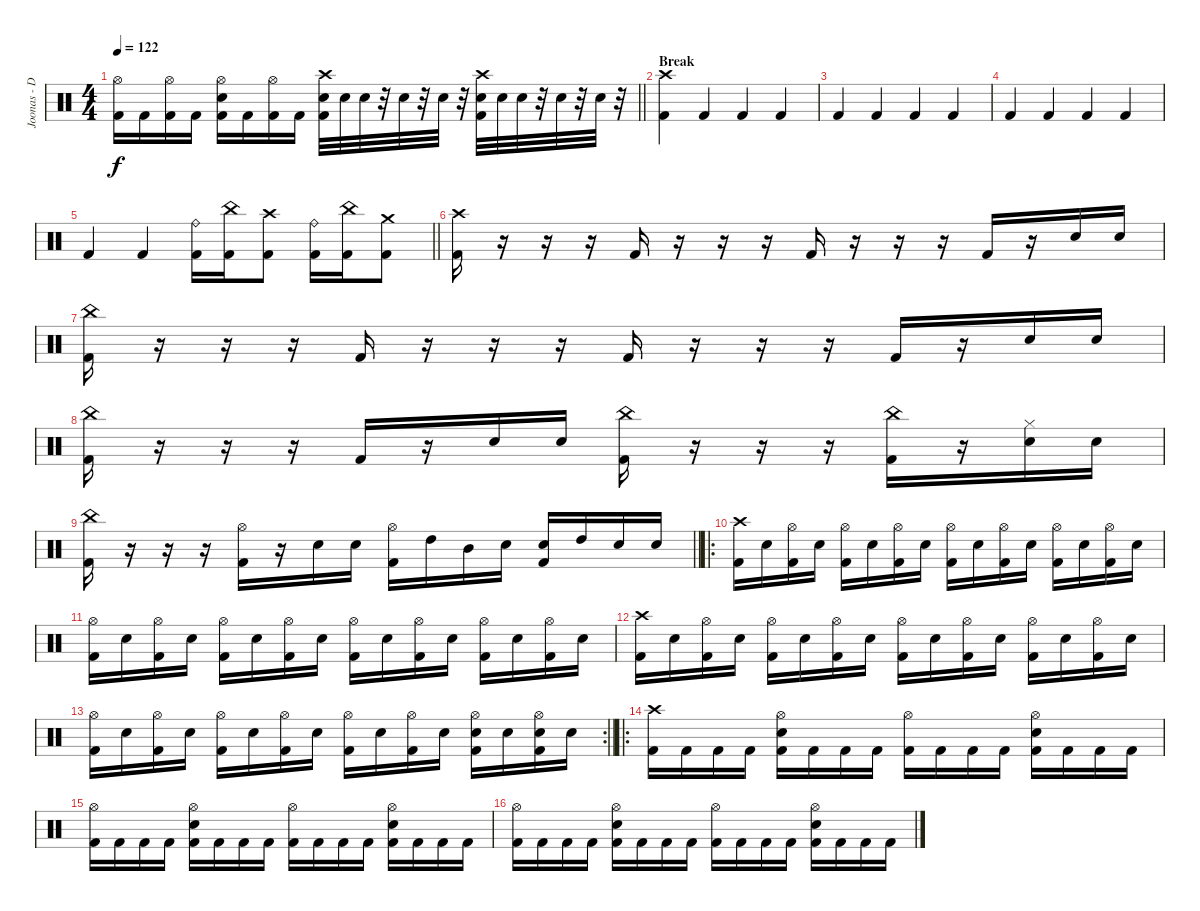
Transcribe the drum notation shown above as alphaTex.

\track ("Joonas - Drums" "Joonas - D") {instrument percussion}
\staff {score}
\articulation defaults
\ts (4 4)
\tempo 122
\clef neutral
\barLineRight lightlight
\ks c
("Hi-Hat (open)" "Kick (hit) 2").16{dy f} "Kick (hit) 2".16 ("Hi-Hat (open)" "Kick (hit) 2").16 "Kick (hit) 2".16 ("Hi-Hat (open)" "Electric Snare (hit)" "Kick (hit) 2").16 "Kick (hit) 2".16 ("Hi-Hat (open)" "Kick (hit) 2").16 "Kick (hit) 2".16 ("Crash high (hit)" "Electric Snare (hit)" "Kick (hit) 2").32 "Electric Snare (hit)".32 "Electric Snare (hit)".32 r.32 "Electric Snare (hit)".32 r.32 "Electric Snare (hit)".32 r.32 ("Crash high (hit)" "Electric Snare (hit)" "Kick (hit) 2").32 "Electric Snare (hit)".32 "Electric Snare (hit)".32 r.32 "Electric Snare (hit)".32 r.32 "Electric Snare (hit)".32 r.32 |
\section ("" "Break")
("Crash high (hit)" "Kick (hit) 2").4 "Kick (hit) 2".4 "Kick (hit) 2".4 "Kick (hit) 2".4 |
"Kick (hit) 2".4 "Kick (hit) 2".4 "Kick (hit) 2".4 "Kick (hit) 2".4 |
"Kick (hit) 2".4 "Kick (hit) 2".4 "Kick (hit) 2".4 "Kick (hit) 2".4 |
\barLineRight lightlight "Kick (hit) 2".4 "Kick (hit) 2".4
("Ride (bell)" "Kick (hit) 2").16 ("China (hit)" "Kick (hit) 2").16 ("Crash high (hit)" "Kick (hit) 2").8 ("Ride (bell)" "Kick (hit) 2").16 ("China (hit)" "Kick (hit) 2").16 ("Crash medium (hit)" "Kick (hit) 2").8 |
("Crash high (hit)" "Kick (hit) 2").16 r.16 r.16 r.16 "Kick (hit) 2".16 r.16 r.16 r.16 "Kick (hit) 2".16 r.16 r.16 r.16 "Kick (hit) 2".16 r.16 "Electric Snare (hit)".16 "Electric Snare (hit)".16 |
("China (hit)" "Kick (hit) 2").16 r.16 r.16 r.16 "Kick (hit) 2".16 r.16 r.16 r.16 "Kick (hit) 2".16 r.16 r.16 r.16 "Kick (hit) 2".16 r.16 "Electric Snare (hit)".16 "Electric Snare (hit)".16 |
("China (hit)" "Kick (hit) 2").16 r.16 r.16 r.16 "Kick (hit) 2".16 r.16 "Electric Snare (hit)".16 "Electric Snare (hit)".16 ("China (hit)" "Kick (hit) 2").16 r.16 r.16 r.16 ("China (hit)" "Kick (hit) 2").16 r.16 ("Hi-Hat (closed)" "Electric Snare (hit)").16 "Electric Snare (hit)".16 |
\barLineRight lightlight
("China (hit)" "Kick (hit) 2").16 r.16 r.16 r.16 ("Hi-Hat (open)" "Kick (hit) 2").16 r.16 "Electric Snare (hit)".16 "Electric Snare (hit)".16 ("Hi-Hat (open)" "Kick (hit) 2").16 "High Tom (hit)".16 "Mid Tom (hit)".16 "Electric Snare (hit)".16 ("Electric Snare (hit)" "Kick (hit) 2").16 "High Tom (hit)".16 "Electric Snare (hit)".16 "Electric Snare (hit)".16 |
\ro
("Crash high (hit)" "Kick (hit) 2").16 "Electric Snare (hit)".16 ("Hi-Hat (open)" "Kick (hit) 2").16 "Electric Snare (hit)".16 ("Hi-Hat (open)" "Kick (hit) 2").16 "Electric Snare (hit)".16 ("Hi-Hat (open)" "Kick (hit) 2").16 "Electric Snare (hit)".16 ("Hi-Hat (open)" "Kick (hit) 2").16 "Electric Snare (hit)".16 ("Hi-Hat (open)" "Kick (hit) 2").16 "Electric Snare (hit)".16 ("Hi-Hat (open)" "Kick (hit) 2").16 "Electric Snare (hit)".16 ("Hi-Hat (open)" "Kick (hit) 2").16 "Electric Snare (hit)".16 |
("Hi-Hat (open)" "Kick (hit) 2").16 "Electric Snare (hit)".16 ("Hi-Hat (open)" "Kick (hit) 2").16 "Electric Snare (hit)".16 ("Hi-Hat (open)" "Kick (hit) 2").16 "Electric Snare (hit)".16 ("Hi-Hat (open)" "Kick (hit) 2").16 "Electric Snare (hit)".16 ("Hi-Hat (open)" "Kick (hit) 2").16 "Electric Snare (hit)".16 ("Hi-Hat (open)" "Kick (hit) 2").16 "Electric Snare (hit)".16 ("Hi-Hat (open)" "Kick (hit) 2").16 "Electric Snare (hit)".16 ("Hi-Hat (open)" "Kick (hit) 2").16 "Electric Snare (hit)".16 |
("Crash high (hit)" "Kick (hit) 2").16 "Electric Snare (hit)".16 ("Hi-Hat (open)" "Kick (hit) 2").16 "Electric Snare (hit)".16 ("Hi-Hat (open)" "Kick (hit) 2").16 "Electric Snare (hit)".16 ("Hi-Hat (open)" "Kick (hit) 2").16 "Electric Snare (hit)".16 ("Hi-Hat (open)" "Kick (hit) 2").16 "Electric Snare (hit)".16 ("Hi-Hat (open)" "Kick (hit) 2").16 "Electric Snare (hit)".16 ("Hi-Hat (open)" "Kick (hit) 2").16 "Electric Snare (hit)".16 ("Hi-Hat (open)" "Kick (hit) 2").16 "Electric Snare (hit)".16 |
\rc 2
\barLineRight lightlight
("Hi-Hat (open)" "Kick (hit) 2").16 "Electric Snare (hit)".16 ("Hi-Hat (open)" "Kick (hit) 2").16 "Electric Snare (hit)".16 ("Hi-Hat (open)" "Kick (hit) 2").16 "Electric Snare (hit)".16 ("Hi-Hat (open)" "Kick (hit) 2").16 "Electric Snare (hit)".16 ("Hi-Hat (open)" "Kick (hit) 2").16 "Electric Snare (hit)".16 ("Hi-Hat (open)" "Kick (hit) 2").16 "Electric Snare (hit)".16 ("Hi-Hat (open)" "Electric Snare (hit)" "Kick (hit) 2").16 "Electric Snare (hit)".16 ("Hi-Hat (open)" "Electric Snare (hit)" "Kick (hit) 2").16 "Electric Snare (hit)".16 |
\ro
("Crash high (hit)" "Kick (hit) 2").16 "Kick (hit) 2".16 "Kick (hit) 2".16 "Kick (hit) 2".16 ("Hi-Hat (open)" "Electric Snare (hit)" "Kick (hit) 2").16 "Kick (hit) 2".16 "Kick (hit) 2".16 "Kick (hit) 2".16 ("Hi-Hat (open)" "Kick (hit) 2").16 "Kick (hit) 2".16 "Kick (hit) 2".16 "Kick (hit) 2".16 ("Hi-Hat (open)" "Electric Snare (hit)" "Kick (hit) 2").16 "Kick (hit) 2".16 "Kick (hit) 2".16 "Kick (hit) 2".16 |
("Hi-Hat (open)" "Kick (hit) 2").16 "Kick (hit) 2".16 "Kick (hit) 2".16 "Kick (hit) 2".16 ("Hi-Hat (open)" "Electric Snare (hit)" "Kick (hit) 2").16 "Kick (hit) 2".16 "Kick (hit) 2".16 "Kick (hit) 2".16 ("Hi-Hat (open)" "Kick (hit) 2").16 "Kick (hit) 2".16 "Kick (hit) 2".16 "Kick (hit) 2".16 ("Hi-Hat (open)" "Electric Snare (hit)" "Kick (hit) 2").16 "Kick (hit) 2".16 "Kick (hit) 2".16 "Kick (hit) 2".16 |
("Hi-Hat (open)" "Kick (hit) 2").16 "Kick (hit) 2".16 "Kick (hit) 2".16 "Kick (hit) 2".16 ("Hi-Hat (open)" "Electric Snare (hit)" "Kick (hit) 2").16 "Kick (hit) 2".16 "Kick (hit) 2".16 "Kick (hit) 2".16 ("Hi-Hat (open)" "Kick (hit) 2").16 "Kick (hit) 2".16 "Kick (hit) 2".16 "Kick (hit) 2".16 ("Hi-Hat (open)" "Electric Snare (hit)" "Kick (hit) 2").16 "Kick (hit) 2".16 "Kick (hit) 2".16 "Kick (hit) 2".16
